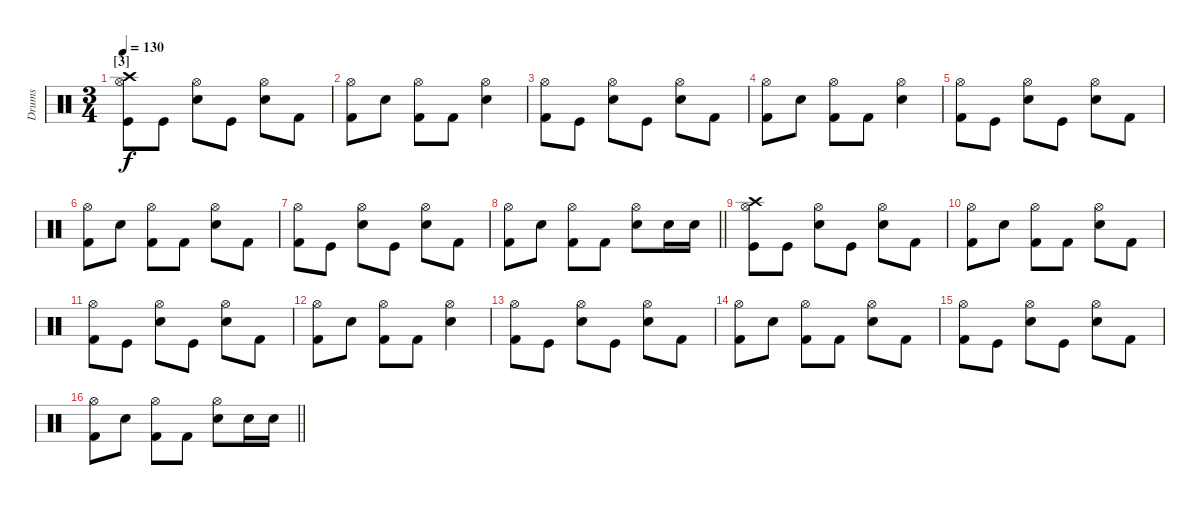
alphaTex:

\track ("Drums" "Drums") {instrument percussion}
\staff {score}
\articulation defaults
\ts (3 4)
\section ("" "[3]")
\tempo 130
\clef neutral
\ks c
("Hi-Hat (open)" "Kick (hit)" "Crash high (hit)").8{dy f} "Kick (hit)".8 ("Hi-Hat (open)" "Electric Snare (hit)").8 "Kick (hit)".8 ("Hi-Hat (open)" "Electric Snare (hit)").8 "Kick (hit) 2".8 |
("Hi-Hat (open)" "Kick (hit) 2").8 "Electric Snare (hit)".8 ("Hi-Hat (open)" "Kick (hit) 2").8 "Kick (hit) 2".8 ("Hi-Hat (open)" "Electric Snare (hit)").4 |
("Hi-Hat (open)" "Kick (hit) 2").8 "Kick (hit)".8 ("Hi-Hat (open)" "Electric Snare (hit)").8 "Kick (hit)".8 ("Hi-Hat (open)" "Electric Snare (hit)").8 "Kick (hit) 2".8 |
("Hi-Hat (open)" "Kick (hit) 2").8 "Electric Snare (hit)".8 ("Hi-Hat (open)" "Kick (hit) 2").8 "Kick (hit) 2".8 ("Hi-Hat (open)" "Electric Snare (hit)").4 |
("Hi-Hat (open)" "Kick (hit) 2").8 "Kick (hit)".8 ("Hi-Hat (open)" "Electric Snare (hit)").8 "Kick (hit)".8 ("Hi-Hat (open)" "Electric Snare (hit)").8 "Kick (hit) 2".8 |
("Hi-Hat (open)" "Kick (hit) 2").8 "Electric Snare (hit)".8 ("Hi-Hat (open)" "Kick (hit) 2").8 "Kick (hit) 2".8 ("Hi-Hat (open)" "Electric Snare (hit)").8 "Kick (hit) 2".8 |
("Hi-Hat (open)" "Kick (hit) 2").8 "Kick (hit)".8 ("Hi-Hat (open)" "Electric Snare (hit)").8 "Kick (hit)".8 ("Hi-Hat (open)" "Electric Snare (hit)").8 "Kick (hit) 2".8 |
\barLineRight lightlight
("Hi-Hat (open)" "Kick (hit) 2").8 "Electric Snare (hit)".8 ("Hi-Hat (open)" "Kick (hit) 2").8 "Kick (hit) 2".8 ("Hi-Hat (open)" "Electric Snare (hit)").8 "Electric Snare (hit)".16 "Electric Snare (hit)".16 |
\section ("" "")
("Hi-Hat (open)" "Kick (hit)" "Crash high (hit)").8 "Kick (hit)".8 ("Hi-Hat (open)" "Electric Snare (hit)").8 "Kick (hit)".8 ("Hi-Hat (open)" "Electric Snare (hit)").8 "Kick (hit) 2".8 |
("Hi-Hat (open)" "Kick (hit) 2").8 "Electric Snare (hit)".8 ("Hi-Hat (open)" "Kick (hit) 2").8 "Kick (hit) 2".8 ("Hi-Hat (open)" "Electric Snare (hit)").8 "Kick (hit) 2".8 |
("Hi-Hat (open)" "Kick (hit) 2").8 "Kick (hit)".8 ("Hi-Hat (open)" "Electric Snare (hit)").8 "Kick (hit)".8 ("Hi-Hat (open)" "Electric Snare (hit)").8 "Kick (hit) 2".8 |
("Hi-Hat (open)" "Kick (hit) 2").8 "Electric Snare (hit)".8 ("Hi-Hat (open)" "Kick (hit) 2").8 "Kick (hit) 2".8 ("Hi-Hat (open)" "Electric Snare (hit)").4 |
("Hi-Hat (open)" "Kick (hit) 2").8 "Kick (hit)".8 ("Hi-Hat (open)" "Electric Snare (hit)").8 "Kick (hit)".8 ("Hi-Hat (open)" "Electric Snare (hit)").8 "Kick (hit) 2".8 |
("Hi-Hat (open)" "Kick (hit) 2").8 "Electric Snare (hit)".8 ("Hi-Hat (open)" "Kick (hit) 2").8 "Kick (hit) 2".8 ("Hi-Hat (open)" "Electric Snare (hit)").8 "Kick (hit) 2".8 |
("Hi-Hat (open)" "Kick (hit) 2").8 "Kick (hit)".8 ("Hi-Hat (open)" "Electric Snare (hit)").8 "Kick (hit)".8 ("Hi-Hat (open)" "Electric Snare (hit)").8 "Kick (hit) 2".8 |
\barLineRight lightlight
("Hi-Hat (open)" "Kick (hit) 2").8 "Electric Snare (hit)".8 ("Hi-Hat (open)" "Kick (hit) 2").8 "Kick (hit) 2".8 ("Hi-Hat (open)" "Electric Snare (hit)").8 "Electric Snare (hit)".16 "Electric Snare (hit)".16
